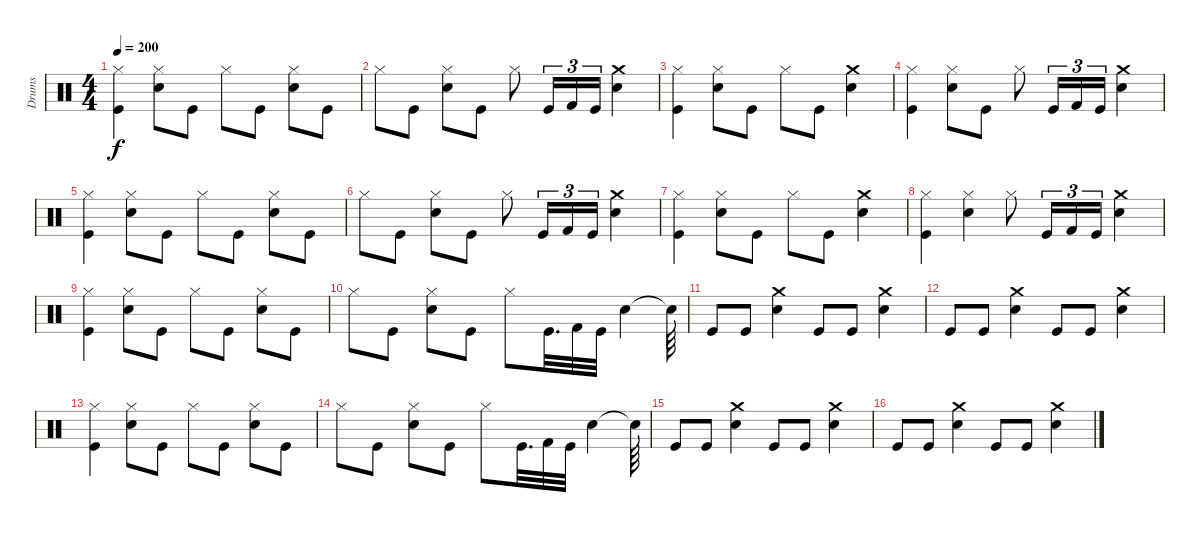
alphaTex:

\track ("Drums" "Drums") {instrument percussion}
\staff {score}
\articulation defaults
\ts (4 4)
\tempo 200
\clef neutral
\ks c
("Hi-Hat (closed)" "Kick (hit)").4{dy f} ("Snare (hit) 2" "Hi-Hat (closed)").8 "Kick (hit)".8 "Hi-Hat (closed)".8 "Kick (hit)".8 ("Snare (hit) 2" "Hi-Hat (closed)").8 "Kick (hit)".8 |
"Hi-Hat (closed)".8 "Kick (hit)".8 ("Snare (hit) 2" "Hi-Hat (closed)").8 "Kick (hit)".8 "Hi-Hat (closed)".8 "Kick (hit)".16{tu (3 2)} "Kick (hit) 2".16{tu (3 2)} "Kick (hit)".16{tu (3 2)} ("Crash medium (hit)" "Snare (hit) 2").4 |
("Hi-Hat (closed)" "Kick (hit)").4 ("Snare (hit) 2" "Hi-Hat (closed)").8 "Kick (hit)".8 "Hi-Hat (closed)".8 "Kick (hit)".8 ("Crash medium (hit)" "Snare (hit) 2").4 |
("Kick (hit)" "Hi-Hat (closed)").4 ("Snare (hit) 2" "Hi-Hat (closed)").8 "Kick (hit)".8 "Hi-Hat (closed)".8 "Kick (hit)".16{tu (3 2)} "Kick (hit) 2".16{tu (3 2)} "Kick (hit)".16{tu (3 2)} ("Crash medium (hit)" "Snare (hit) 2").4 |
("Hi-Hat (closed)" "Kick (hit)").4 ("Snare (hit) 2" "Hi-Hat (closed)").8 "Kick (hit)".8 "Hi-Hat (closed)".8 "Kick (hit)".8 ("Snare (hit) 2" "Hi-Hat (closed)").8 "Kick (hit)".8 |
"Hi-Hat (closed)".8 "Kick (hit)".8 ("Snare (hit) 2" "Hi-Hat (closed)").8 "Kick (hit)".8 "Hi-Hat (closed)".8 "Kick (hit)".16{tu (3 2)} "Kick (hit) 2".16{tu (3 2)} "Kick (hit)".16{tu (3 2)} ("Crash medium (hit)" "Snare (hit) 2").4 |
("Hi-Hat (closed)" "Kick (hit)").4 ("Snare (hit) 2" "Hi-Hat (closed)").8 "Kick (hit)".8 "Hi-Hat (closed)".8 "Kick (hit)".8 ("Crash medium (hit)" "Snare (hit) 2").4 |
("Hi-Hat (closed)" "Kick (hit)").4 ("Snare (hit) 2" "Hi-Hat (closed)").4 "Hi-Hat (closed)".8 "Kick (hit)".16{tu (3 2)} "Kick (hit) 2".16{tu (3 2)} "Kick (hit)".16{tu (3 2)} ("Crash medium (hit)" "Snare (hit) 2").4 |
("Hi-Hat (closed)" "Kick (hit)").4 ("Hi-Hat (closed)" "Snare (hit) 2").8 "Kick (hit)".8 "Hi-Hat (closed)".8 "Kick (hit)".8 ("Snare (hit) 2" "Hi-Hat (closed)").8 "Kick (hit)".8 |
"Hi-Hat (closed)".8 "Kick (hit)".8 ("Snare (hit) 2" "Hi-Hat (closed)").8 "Kick (hit)".8 "Hi-Hat (closed)".8 "Kick (hit)".32{d} "Kick (hit) 2".32 "Kick (hit)".32 "Snare (hit) 2".4 "Snare (hit)"{t}.64 |
"Kick (hit)".8 "Kick (hit)".8 ("Crash medium (hit)" "Snare (hit) 2").4 "Kick (hit)".8 "Kick (hit)".8 ("Snare (hit) 2" "Crash medium (hit)").4 |
"Kick (hit)".8 "Kick (hit)".8 ("Snare (hit) 2" "Crash medium (hit)").4 "Kick (hit)".8 "Kick (hit)".8 ("Snare (hit) 2" "Crash medium (hit)").4 |
("Hi-Hat (closed)" "Kick (hit)").4 ("Snare (hit) 2" "Hi-Hat (closed)").8 "Kick (hit)".8 "Hi-Hat (closed)".8 "Kick (hit)".8 ("Snare (hit) 2" "Hi-Hat (closed)").8 "Kick (hit)".8 |
"Hi-Hat (closed)".8 "Kick (hit)".8 ("Snare (hit) 2" "Hi-Hat (closed)").8 "Kick (hit)".8 "Hi-Hat (closed)".8 "Kick (hit)".32{d} "Kick (hit) 2".32 "Kick (hit)".32 "Snare (hit) 2".4 "Snare (hit)"{t}.64 |
"Kick (hit)".8 "Kick (hit)".8 ("Crash medium (hit)" "Snare (hit) 2").4 "Kick (hit)".8 "Kick (hit)".8 ("Snare (hit) 2" "Crash medium (hit)").4 |
"Kick (hit)".8 "Kick (hit)".8 ("Snare (hit) 2" "Crash medium (hit)").4 "Kick (hit)".8 "Kick (hit)".8 ("Snare (hit) 2" "Crash medium (hit)").4
